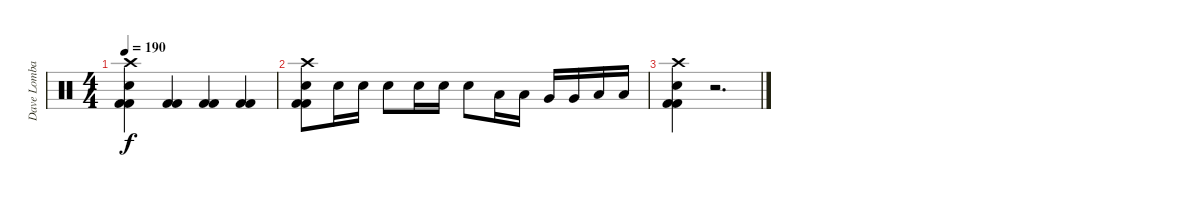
\track ("Dave Lombardo" "Dave Lomba") {instrument percussion}
\staff {score}
\articulation defaults
\ts (4 4)
\tempo 190
\clef neutral
\ks c
("Crash high (hit)" "Electric Snare (hit)" "Kick (hit) 2" "Kick (hit) 2").4{dy f} ("Kick (hit) 2" "Kick (hit) 2").4 ("Kick (hit) 2" "Kick (hit) 2").4 ("Kick (hit) 2" "Kick (hit) 2").4 |
("Crash high (hit)" "Electric Snare (hit)" "Kick (hit) 2" "Kick (hit) 2").8 "Electric Snare (hit)".16 "Electric Snare (hit)".16 "Electric Snare (hit)".8 "Electric Snare (hit)".16 "Electric Snare (hit)".16 "Electric Snare (hit)".8 "Low Tom (hit)".16 "Low Tom (hit)".16 "Very Low Tom (hit)".16 "Very Low Tom (hit)".16 "Low Floor Tom (hit)".16 "Low Floor Tom (hit)".16 |
("Crash high (hit)" "Electric Snare (hit)" "Kick (hit) 2" "Kick (hit) 2").4 r.2{d}
